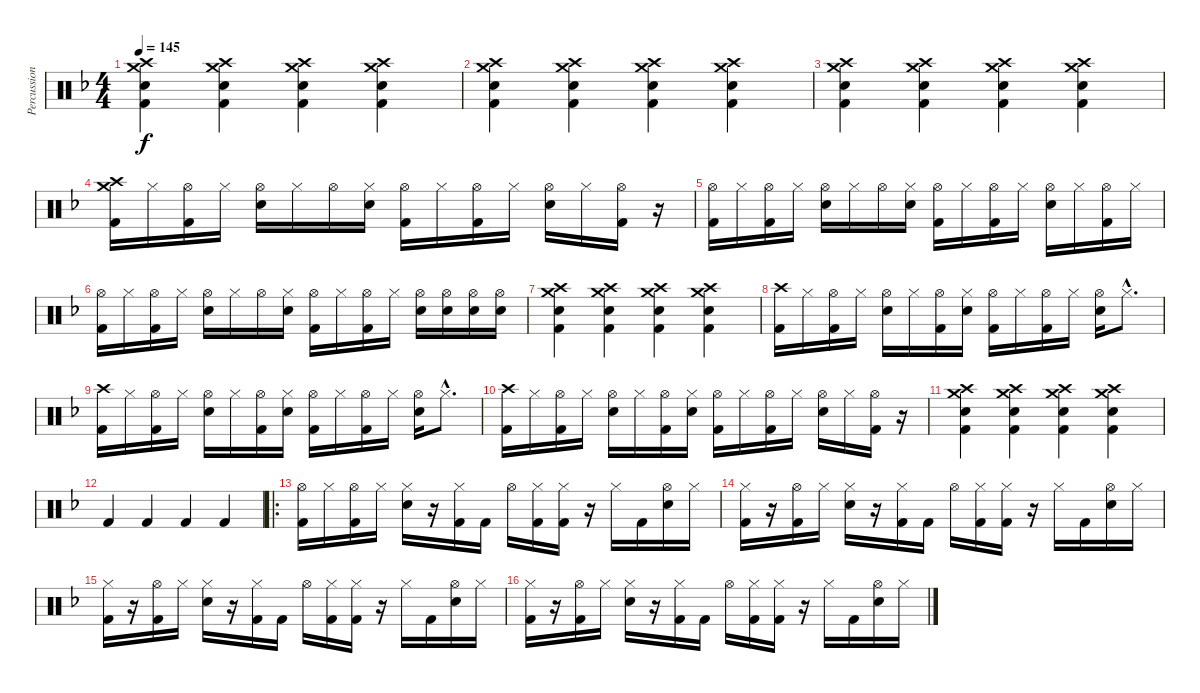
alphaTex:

\track ("Percussion" "Percussion") {instrument percussion}
\staff {score}
\articulation defaults
\ts (4 4)
\tempo 145
\clef neutral
\ks f
("Crash high (hit)" "Crash medium (hit)" "Electric Snare (hit)" "Kick (hit) 2").4{dy f} ("Crash high (hit)" "Crash medium (hit)" "Electric Snare (hit)" "Kick (hit) 2").4 ("Crash high (hit)" "Crash medium (hit)" "Electric Snare (hit)" "Kick (hit) 2").4 ("Crash high (hit)" "Crash medium (hit)" "Electric Snare (hit)" "Kick (hit) 2").4 |
("Crash high (hit)" "Crash medium (hit)" "Electric Snare (hit)" "Kick (hit) 2").4 ("Crash high (hit)" "Crash medium (hit)" "Electric Snare (hit)" "Kick (hit) 2").4 ("Crash high (hit)" "Crash medium (hit)" "Electric Snare (hit)" "Kick (hit) 2").4 ("Crash high (hit)" "Crash medium (hit)" "Electric Snare (hit)" "Kick (hit) 2").4 |
("Crash high (hit)" "Crash medium (hit)" "Electric Snare (hit)" "Kick (hit) 2").4 ("Crash high (hit)" "Crash medium (hit)" "Electric Snare (hit)" "Kick (hit) 2").4 ("Crash high (hit)" "Crash medium (hit)" "Electric Snare (hit)" "Kick (hit) 2").4 ("Crash high (hit)" "Crash medium (hit)" "Electric Snare (hit)" "Kick (hit) 2").4 |
("Crash high (hit)" "Crash medium (hit)" "Kick (hit) 2").16 "Hi-Hat (closed)".16 ("Hi-Hat (open)" "Kick (hit) 2").16 "Hi-Hat (closed)".16 ("Hi-Hat (open)" "Electric Snare (hit)").16 "Hi-Hat (closed)".16 "Hi-Hat (open)".16 ("Hi-Hat (closed)" "Electric Snare (hit)").16 ("Hi-Hat (open)" "Kick (hit) 2").16 "Hi-Hat (closed)".16 ("Hi-Hat (open)" "Kick (hit) 2").16 "Hi-Hat (closed)".16 ("Hi-Hat (open)" "Electric Snare (hit)").16 "Hi-Hat (closed)".16 ("Hi-Hat (open)" "Kick (hit) 2").16 r.16 |
("Hi-Hat (open)" "Kick (hit) 2").16 "Hi-Hat (closed)".16 ("Hi-Hat (open)" "Kick (hit) 2").16 "Hi-Hat (closed)".16 ("Hi-Hat (open)" "Electric Snare (hit)").16 "Hi-Hat (closed)".16 "Hi-Hat (open)".16 ("Hi-Hat (closed)" "Electric Snare (hit)").16 ("Hi-Hat (open)" "Kick (hit) 2").16 "Hi-Hat (closed)".16 ("Hi-Hat (open)" "Kick (hit) 2").16 "Hi-Hat (closed)".16 ("Hi-Hat (open)" "Electric Snare (hit)").16 "Hi-Hat (closed)".16 ("Hi-Hat (open)" "Kick (hit) 2").16 "Hi-Hat (closed)".16 |
("Hi-Hat (open)" "Kick (hit) 2").16 "Hi-Hat (closed)".16 ("Hi-Hat (open)" "Kick (hit) 2").16 "Hi-Hat (closed)".16 ("Hi-Hat (open)" "Electric Snare (hit)").16 "Hi-Hat (closed)".16 "Hi-Hat (open)".16 ("Hi-Hat (closed)" "Electric Snare (hit)").16 ("Hi-Hat (open)" "Kick (hit) 2").16 "Hi-Hat (closed)".16 ("Hi-Hat (open)" "Kick (hit) 2").16 "Hi-Hat (closed)".16 ("Hi-Hat (open)" "Electric Snare (hit)").16 ("Hi-Hat (open)" "Electric Snare (hit)").16 ("Hi-Hat (open)" "Electric Snare (hit)").16 ("Hi-Hat (open)" "Electric Snare (hit)").16 |
("Crash high (hit)" "Crash medium (hit)" "Electric Snare (hit)" "Kick (hit) 2").4 ("Crash high (hit)" "Crash medium (hit)" "Electric Snare (hit)" "Kick (hit) 2").4 ("Crash high (hit)" "Crash medium (hit)" "Electric Snare (hit)" "Kick (hit) 2").4 ("Crash high (hit)" "Crash medium (hit)" "Electric Snare (hit)" "Kick (hit) 2").4 |
("Crash high (hit)" "Kick (hit) 2").16 "Hi-Hat (closed)".16 ("Hi-Hat (open)" "Kick (hit) 2").16 "Hi-Hat (closed)".16 ("Hi-Hat (open)" "Electric Snare (hit)").16 "Hi-Hat (closed)".16 ("Hi-Hat (open)" "Kick (hit) 2").16 ("Hi-Hat (closed)" "Electric Snare (hit)").16 ("Hi-Hat (open)" "Kick (hit) 2").16 "Hi-Hat (closed)".16 ("Hi-Hat (open)" "Kick (hit) 2").16 "Hi-Hat (closed)".16 ("Hi-Hat (open)" "Electric Snare (hit)").16 "Hi-Hat (closed)"{hac}.8{d} |
("Crash high (hit)" "Kick (hit) 2").16 "Hi-Hat (closed)".16 ("Hi-Hat (open)" "Kick (hit) 2").16 "Hi-Hat (closed)".16 ("Hi-Hat (open)" "Electric Snare (hit)").16 "Hi-Hat (closed)".16 ("Hi-Hat (open)" "Kick (hit) 2").16 ("Hi-Hat (closed)" "Electric Snare (hit)").16 ("Hi-Hat (open)" "Kick (hit) 2").16 "Hi-Hat (closed)".16 ("Hi-Hat (open)" "Kick (hit) 2").16 "Hi-Hat (closed)".16 ("Hi-Hat (open)" "Electric Snare (hit)").16 "Hi-Hat (closed)"{hac}.8{d} |
("Crash high (hit)" "Kick (hit) 2").16 "Hi-Hat (closed)".16 ("Hi-Hat (open)" "Kick (hit) 2").16 "Hi-Hat (closed)".16 ("Hi-Hat (open)" "Electric Snare (hit)").16 "Hi-Hat (closed)".16 ("Hi-Hat (open)" "Kick (hit) 2").16 ("Hi-Hat (closed)" "Electric Snare (hit)").16 ("Hi-Hat (open)" "Kick (hit) 2").16 "Hi-Hat (closed)".16 ("Hi-Hat (open)" "Kick (hit) 2").16 "Hi-Hat (closed)".16 ("Hi-Hat (open)" "Electric Snare (hit)").16 "Hi-Hat (closed)".16 ("Hi-Hat (open)" "Kick (hit) 2").16 r.16 |
("Crash high (hit)" "Crash medium (hit)" "Electric Snare (hit)" "Kick (hit) 2").4 ("Crash high (hit)" "Crash medium (hit)" "Electric Snare (hit)" "Kick (hit) 2").4 ("Crash high (hit)" "Crash medium (hit)" "Electric Snare (hit)" "Kick (hit) 2").4 ("Crash high (hit)" "Crash medium (hit)" "Electric Snare (hit)" "Kick (hit) 2").4 |
"Kick (hit) 2".4 "Kick (hit) 2".4 "Kick (hit) 2".4 "Kick (hit) 2".4 |
\ro
("Hi-Hat (open)" "Kick (hit) 2").16 "Hi-Hat (closed)".16 ("Hi-Hat (open)" "Kick (hit) 2").16 "Hi-Hat (closed)".16 ("Hi-Hat (closed)" "Electric Snare (hit)").16 r.16 ("Hi-Hat (closed)" "Kick (hit) 2").16 "Kick (hit) 2".16 "Hi-Hat (open)".16 ("Hi-Hat (closed)" "Kick (hit) 2").16 ("Hi-Hat (closed)" "Kick (hit) 2").16 r.16 "Hi-Hat (closed)".16 "Kick (hit) 2".16 ("Hi-Hat (open)" "Electric Snare (hit)").16 "Hi-Hat (closed)".16 |
("Hi-Hat (closed)" "Kick (hit) 2").16 r.16 ("Hi-Hat (open)" "Kick (hit) 2").16 "Hi-Hat (closed)".16 ("Hi-Hat (closed)" "Electric Snare (hit)").16 r.16 ("Hi-Hat (closed)" "Kick (hit) 2").16 "Kick (hit) 2".16 "Hi-Hat (open)".16 ("Hi-Hat (closed)" "Kick (hit) 2").16 ("Hi-Hat (closed)" "Kick (hit) 2").16 r.16 "Hi-Hat (closed)".16 "Kick (hit) 2".16 ("Hi-Hat (open)" "Electric Snare (hit)").16 "Hi-Hat (closed)".16 |
("Hi-Hat (closed)" "Kick (hit) 2").16 r.16 ("Hi-Hat (open)" "Kick (hit) 2").16 "Hi-Hat (closed)".16 ("Hi-Hat (closed)" "Electric Snare (hit)").16 r.16 ("Hi-Hat (closed)" "Kick (hit) 2").16 "Kick (hit) 2".16 "Hi-Hat (open)".16 ("Hi-Hat (closed)" "Kick (hit) 2").16 ("Hi-Hat (closed)" "Kick (hit) 2").16 r.16 "Hi-Hat (closed)".16 "Kick (hit) 2".16 ("Hi-Hat (open)" "Electric Snare (hit)").16 "Hi-Hat (closed)".16 |
("Hi-Hat (closed)" "Kick (hit) 2").16 r.16 ("Hi-Hat (open)" "Kick (hit) 2").16 "Hi-Hat (closed)".16 ("Hi-Hat (closed)" "Electric Snare (hit)").16 r.16 ("Hi-Hat (closed)" "Kick (hit) 2").16 "Kick (hit) 2".16 "Hi-Hat (open)".16 ("Hi-Hat (closed)" "Kick (hit) 2").16 ("Hi-Hat (closed)" "Kick (hit) 2").16 r.16 "Hi-Hat (closed)".16 "Kick (hit) 2".16 ("Hi-Hat (open)" "Electric Snare (hit)").16 "Hi-Hat (closed)".16
